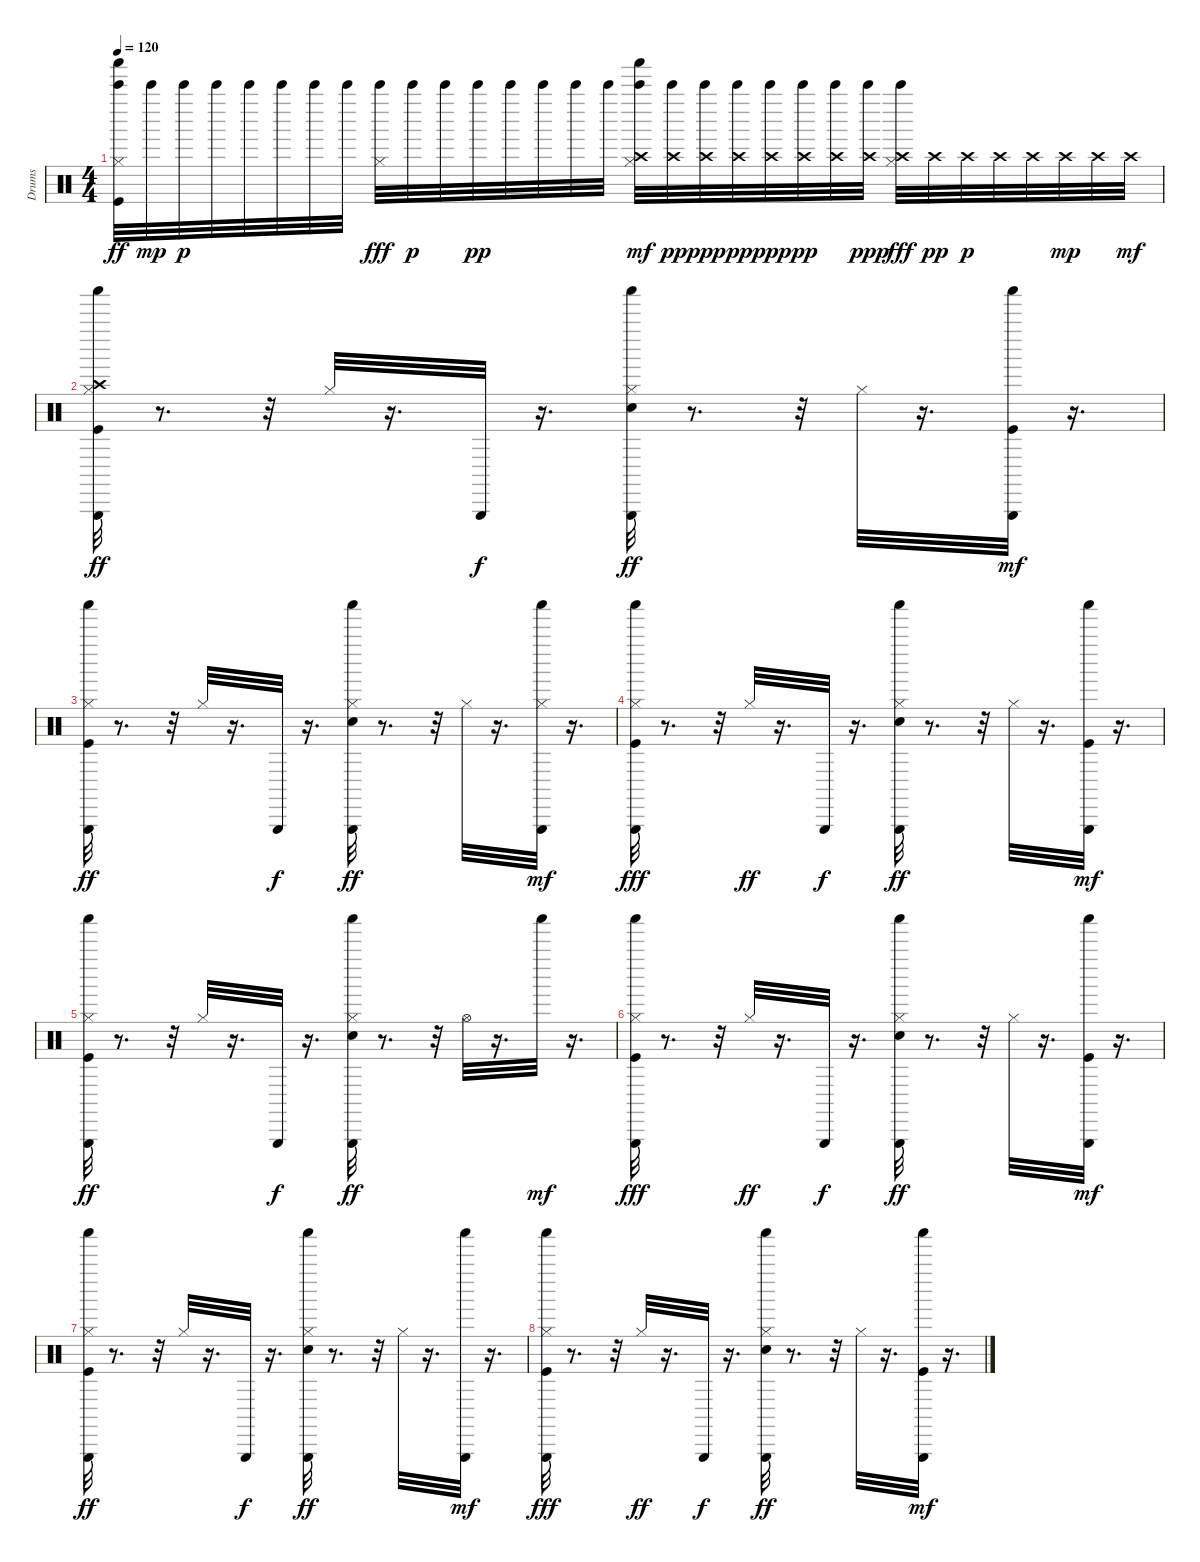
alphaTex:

\track ("Drums" "Drums") {instrument percussion}
\staff {score}
\articulation defaults
\ts (4 4)
\tempo 120
\clef neutral
\ks c
("Bell Tree (hit)" "Shaker (hit)" "Kick (hit)" "Hi-Hat (closed)").32{dy ff} "Bell Tree (hit)".32{dy mp} "Bell Tree (hit)".32{dy p} "Bell Tree (hit)".32 "Bell Tree (hit)".32 "Bell Tree (hit)".32 "Bell Tree (hit)".32 "Bell Tree (hit)".32 ("Bell Tree (hit)" "Hi-Hat (closed)").32{dy fff} "Bell Tree (hit)".32{dy p} "Bell Tree (hit)".32 "Bell Tree (hit)".32{dy pp} "Bell Tree (hit)".32 "Bell Tree (hit)".32 "Bell Tree (hit)".32 "Bell Tree (hit)".32 ("Bell Tree (hit)" "Crash high (hit)" "Hi-Hat (closed)" "Shaker (hit)").32{dy mf} ("Crash high (hit)" "Bell Tree (hit)").32{dy pp} ("Bell Tree (hit)" "Crash high (hit)").32{dy ppp} ("Crash high (hit)" "Bell Tree (hit)").32{dy pp} ("Bell Tree (hit)" "Crash high (hit)").32{dy ppp} ("Crash high (hit)" "Bell Tree (hit)").32{dy pp} ("Bell Tree (hit)" "Crash high (hit)").32 ("Crash high (hit)" "Bell Tree (hit)").32{dy ppp} ("Bell Tree (hit)" "Crash high (hit)" "Hi-Hat (closed)").32{dy fff} "Crash high (hit)".32{dy pp} "Crash high (hit)".32{dy p} "Crash high (hit)".32 "Crash high (hit)".32 "Crash high (hit)".32{dy mp} "Crash high (hit)".32 "Crash high (hit)".32{dy mf} |
("Hi-Hat (closed)" "Kick (hit)" "Crash high (hit)" "Shaker (hit)" "Triangle (hit)").32{dy ff} r.8{d} r.32 "Hi-Hat (closed)".32 r.16{d} "Triangle (hit)".32{dy f} r.16{d} ("Shaker (hit)" "Triangle (hit)" "Electric Snare (hit)" "Hi-Hat (closed)").32{dy ff} r.8{d} r.32 "Hi-Hat (closed)".32 r.16{d} ("Kick (hit)" "Shaker (hit)" "Triangle (hit)").32{dy mf} r.16{d} |
("Shaker (hit)" "Triangle (hit)" "Kick (hit)" "Hi-Hat (closed)").32{dy ff} r.8{d} r.32 "Hi-Hat (closed)".32 r.16{d} "Triangle (hit)".32{dy f} r.16{d} ("Shaker (hit)" "Triangle (hit)" "Electric Snare (hit)" "Hi-Hat (closed)").32{dy ff} r.8{d} r.32 "Hi-Hat (closed)".32 r.16{d} ("Hi-Hat (closed)" "Shaker (hit)" "Triangle (hit)").32{dy mf} r.16{d} |
("Shaker (hit)" "Triangle (hit)" "Hi-Hat (closed)" "Kick (hit)").32{dy fff} r.8{d} r.32 "Hi-Hat (closed)".32{dy ff} r.16{d} "Triangle (hit)".32{dy f} r.16{d} ("Shaker (hit)" "Triangle (hit)" "Electric Snare (hit)" "Hi-Hat (closed)").32{dy ff} r.8{d} r.32 "Hi-Hat (closed)".32 r.16{d} ("Kick (hit)" "Shaker (hit)" "Triangle (hit)").32{dy mf} r.16{d} |
("Shaker (hit)" "Triangle (hit)" "Kick (hit)" "Hi-Hat (closed)").32{dy ff} r.8{d} r.32 "Hi-Hat (closed)".32 r.16{d} "Triangle (hit)".32{dy f} r.16{d} ("Shaker (hit)" "Triangle (hit)" "Electric Snare (hit)" "Hi-Hat (closed)").32{dy ff} r.8{d} r.32 "Hi-Hat (open)".32 r.16{d} "Shaker (hit)".32{dy mf} r.16{d} |
("Shaker (hit)" "Triangle (hit)" "Hi-Hat (closed)" "Kick (hit)").32{dy fff} r.8{d} r.32 "Hi-Hat (closed)".32{dy ff} r.16{d} "Triangle (hit)".32{dy f} r.16{d} ("Shaker (hit)" "Triangle (hit)" "Electric Snare (hit)" "Hi-Hat (closed)").32{dy ff} r.8{d} r.32 "Hi-Hat (closed)".32 r.16{d} ("Kick (hit)" "Shaker (hit)" "Triangle (hit)").32{dy mf} r.16{d} |
("Shaker (hit)" "Triangle (hit)" "Kick (hit)" "Hi-Hat (closed)").32{dy ff} r.8{d} r.32 "Hi-Hat (closed)".32 r.16{d} "Triangle (hit)".32{dy f} r.16{d} ("Shaker (hit)" "Triangle (hit)" "Electric Snare (hit)" "Hi-Hat (closed)").32{dy ff} r.8{d} r.32 "Hi-Hat (closed)".32 r.16{d} ("Shaker (hit)" "Triangle (hit)").32{dy mf} r.16{d} |
("Shaker (hit)" "Triangle (hit)" "Hi-Hat (closed)" "Kick (hit)").32{dy fff} r.8{d} r.32 "Hi-Hat (closed)".32{dy ff} r.16{d} "Triangle (hit)".32{dy f} r.16{d} ("Shaker (hit)" "Triangle (hit)" "Electric Snare (hit)" "Hi-Hat (closed)").32{dy ff} r.8{d} r.32 "Hi-Hat (closed)".32 r.16{d} ("Kick (hit)" "Shaker (hit)" "Triangle (hit)").32{dy mf} r.16{d}
